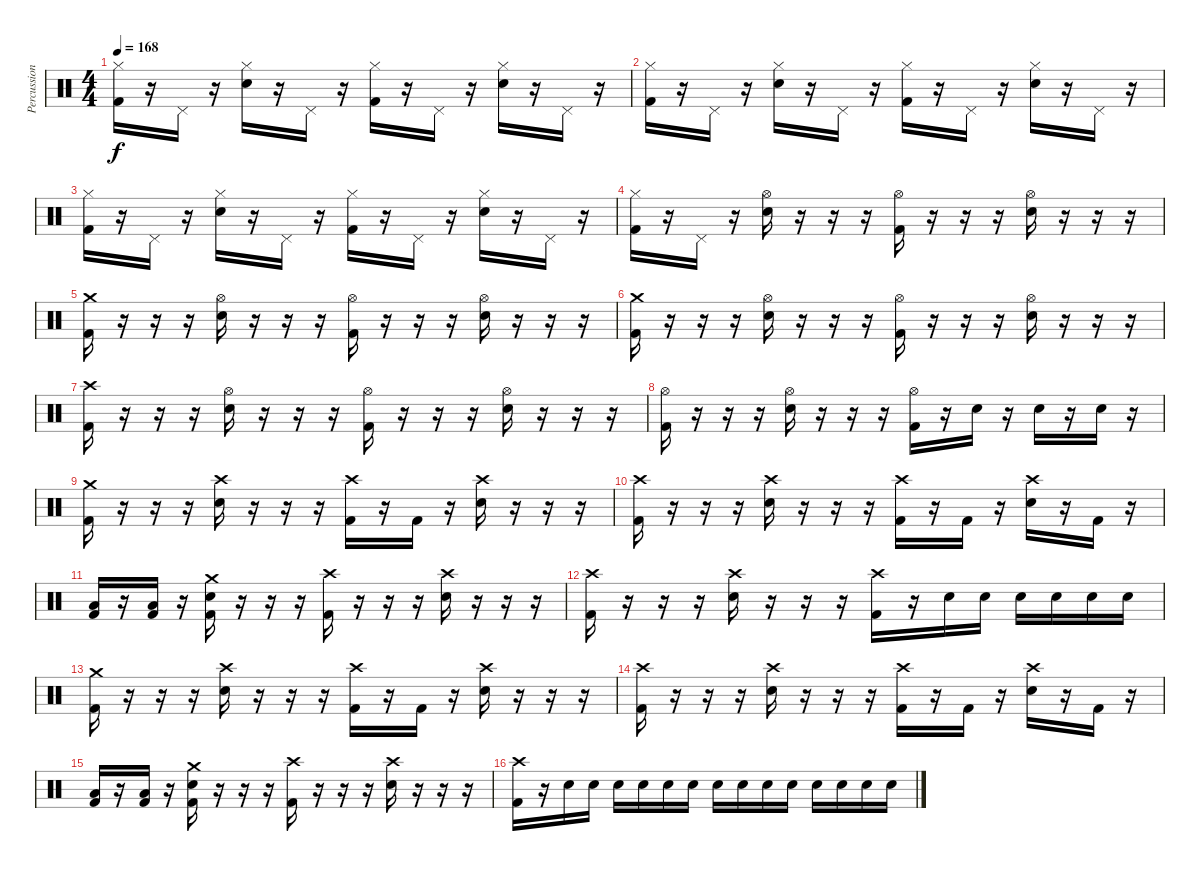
\track ("Percussion" "Percussion") {instrument percussion}
\staff {score}
\articulation defaults
\ts (4 4)
\tempo 168
\clef neutral
\ks c
("Hi-Hat (closed)" "Kick (hit) 2").16{dy f} r.16 "Pedal Hi-Hat (hit)".16 r.16 ("Hi-Hat (closed)" "Snare (hit) 2").16 r.16 "Pedal Hi-Hat (hit)".16 r.16 ("Hi-Hat (closed)" "Kick (hit) 2").16 r.16 "Pedal Hi-Hat (hit)".16 r.16 ("Hi-Hat (closed)" "Snare (hit) 2").16 r.16 "Pedal Hi-Hat (hit)".16 r.16 |
("Hi-Hat (closed)" "Kick (hit) 2").16 r.16 "Pedal Hi-Hat (hit)".16 r.16 ("Hi-Hat (closed)" "Snare (hit) 2").16 r.16 "Pedal Hi-Hat (hit)".16 r.16 ("Hi-Hat (closed)" "Kick (hit) 2").16 r.16 "Pedal Hi-Hat (hit)".16 r.16 ("Hi-Hat (closed)" "Snare (hit) 2").16 r.16 "Pedal Hi-Hat (hit)".16 r.16 |
("Hi-Hat (closed)" "Kick (hit) 2").16 r.16 "Pedal Hi-Hat (hit)".16 r.16 ("Hi-Hat (closed)" "Snare (hit) 2").16 r.16 "Pedal Hi-Hat (hit)".16 r.16 ("Hi-Hat (closed)" "Kick (hit) 2").16 r.16 "Pedal Hi-Hat (hit)".16 r.16 ("Hi-Hat (closed)" "Snare (hit) 2").16 r.16 "Pedal Hi-Hat (hit)".16 r.16 |
("Hi-Hat (closed)" "Kick (hit) 2").16 r.16 "Pedal Hi-Hat (hit)".16 r.16 ("Hi-Hat (open)" "Snare (hit) 2").16 r.16 r.16 r.16 ("Hi-Hat (open)" "Kick (hit) 2").16 r.16 r.16 r.16 ("Hi-Hat (open)" "Snare (hit) 2").16 r.16 r.16 r.16 |
("Crash medium (hit)" "Kick (hit) 2").16 r.16 r.16 r.16 ("Hi-Hat (open)" "Snare (hit) 2").16 r.16 r.16 r.16 ("Hi-Hat (open)" "Kick (hit) 2").16 r.16 r.16 r.16 ("Hi-Hat (open)" "Snare (hit) 2").16 r.16 r.16 r.16 |
("Crash medium (hit)" "Kick (hit) 2").16 r.16 r.16 r.16 ("Hi-Hat (open)" "Snare (hit) 2").16 r.16 r.16 r.16 ("Hi-Hat (open)" "Kick (hit) 2").16 r.16 r.16 r.16 ("Hi-Hat (open)" "Snare (hit) 2").16 r.16 r.16 r.16 |
("Crash high (hit)" "Kick (hit) 2").16 r.16 r.16 r.16 ("Hi-Hat (open)" "Snare (hit) 2").16 r.16 r.16 r.16 ("Hi-Hat (open)" "Kick (hit) 2").16 r.16 r.16 r.16 ("Hi-Hat (open)" "Snare (hit) 2").16 r.16 r.16 r.16 |
("Hi-Hat (open)" "Kick (hit) 2").16 r.16 r.16 r.16 ("Hi-Hat (open)" "Snare (hit) 2").16 r.16 r.16 r.16 ("Hi-Hat (open)" "Kick (hit) 2").16 r.16 "Snare (hit) 2".16 r.16 "Snare (hit) 2".16 r.16 "Snare (hit) 2".16 r.16 |
("Crash medium (hit)" "Kick (hit) 2").16 r.16 r.16 r.16 ("Crash high (hit)" "Snare (hit) 2").16 r.16 r.16 r.16 ("Crash high (hit)" "Kick (hit) 2").16 r.16 "Kick (hit) 2".16 r.16 ("Crash high (hit)" "Snare (hit) 2").16 r.16 r.16 r.16 |
("Crash high (hit)" "Kick (hit) 2").16 r.16 r.16 r.16 ("Crash high (hit)" "Snare (hit) 2").16 r.16 r.16 r.16 ("Crash high (hit)" "Kick (hit) 2").16 r.16 "Kick (hit) 2".16 r.16 ("Crash high (hit)" "Snare (hit) 2").16 r.16 "Kick (hit) 2".16 r.16 |
("Low Floor Tom (hit)" "Kick (hit) 2").16 r.16 ("Low Floor Tom (hit)" "Kick (hit) 2").16 r.16 ("Crash medium (hit)" "Snare (hit) 2" "Kick (hit) 2").16 r.16 r.16 r.16 ("Crash high (hit)" "Kick (hit) 2").16 r.16 r.16 r.16 ("Crash high (hit)" "Snare (hit) 2").16 r.16 r.16 r.16 |
("Crash high (hit)" "Kick (hit) 2").16 r.16 r.16 r.16 ("Crash high (hit)" "Snare (hit) 2").16 r.16 r.16 r.16 ("Crash high (hit)" "Kick (hit) 2").16 r.16 "Snare (hit) 2".16 "Snare (hit) 2".16 "Snare (hit) 2".16 "Snare (hit) 2".16 "Snare (hit) 2".16 "Snare (hit) 2".16 |
("Crash medium (hit)" "Kick (hit) 2").16 r.16 r.16 r.16 ("Crash high (hit)" "Snare (hit) 2").16 r.16 r.16 r.16 ("Crash high (hit)" "Kick (hit) 2").16 r.16 "Kick (hit) 2".16 r.16 ("Crash high (hit)" "Snare (hit) 2").16 r.16 r.16 r.16 |
("Crash high (hit)" "Kick (hit) 2").16 r.16 r.16 r.16 ("Crash high (hit)" "Snare (hit) 2").16 r.16 r.16 r.16 ("Crash high (hit)" "Kick (hit) 2").16 r.16 "Kick (hit) 2".16 r.16 ("Crash high (hit)" "Snare (hit) 2").16 r.16 "Kick (hit) 2".16 r.16 |
("Low Floor Tom (hit)" "Kick (hit) 2").16 r.16 ("Low Floor Tom (hit)" "Kick (hit) 2").16 r.16 ("Crash medium (hit)" "Snare (hit) 2" "Kick (hit) 2").16 r.16 r.16 r.16 ("Crash high (hit)" "Kick (hit) 2").16 r.16 r.16 r.16 ("Crash high (hit)" "Snare (hit) 2").16 r.16 r.16 r.16 |
("Crash high (hit)" "Kick (hit) 2").16 r.16 "Snare (hit) 2".16 "Snare (hit) 2".16 "Snare (hit) 2".16 "Snare (hit) 2".16 "Snare (hit) 2".16 "Snare (hit) 2".16 "Snare (hit) 2".16 "Snare (hit) 2".16 "Snare (hit) 2".16 "Snare (hit) 2".16 "Snare (hit) 2".16 "Snare (hit) 2".16 "Snare (hit) 2".16 "Snare (hit) 2".16
